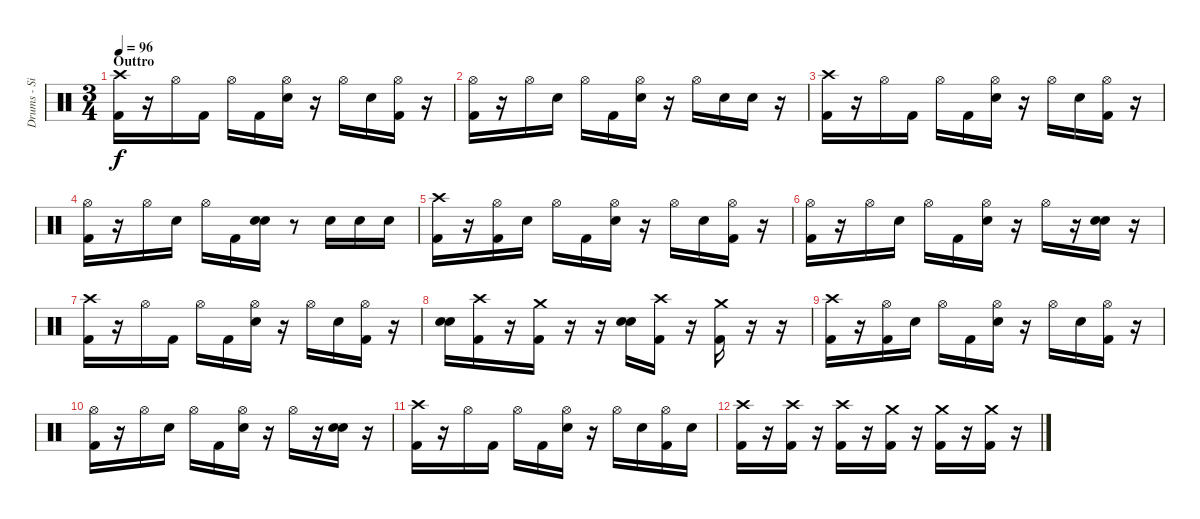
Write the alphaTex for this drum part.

\track ("Drums - Si" "Drums - Si") {instrument percussion}
\staff {score}
\articulation defaults
\ts (3 4)
\section ("" "Outtro")
\tempo 96
\clef neutral
\ks c
("Crash high (hit)" "Kick (hit) 2").16{dy f} r.16 "Hi-Hat (open)".16 "Kick (hit) 2".16 "Hi-Hat (open)".16 "Kick (hit) 2".16 ("Hi-Hat (open)" "Snare (hit) 2").16 r.16 "Hi-Hat (open)".16 "Snare (hit) 2".16 ("Hi-Hat (open)" "Kick (hit) 2").16 r.16 |
("Hi-Hat (open)" "Kick (hit) 2").16 r.16 "Hi-Hat (open)".16 "Snare (hit) 2".16 "Hi-Hat (open)".16 "Kick (hit) 2".16 ("Hi-Hat (open)" "Snare (hit) 2").16 r.16 "Hi-Hat (open)".16 "Snare (hit) 2".16 "Snare (hit) 2".16 r.16 |
("Crash high (hit)" "Kick (hit) 2").16 r.16 "Hi-Hat (open)".16 "Kick (hit) 2".16 "Hi-Hat (open)".16 "Kick (hit) 2".16 ("Hi-Hat (open)" "Snare (hit) 2").16 r.16 "Hi-Hat (open)".16 "Snare (hit) 2".16 ("Hi-Hat (open)" "Kick (hit) 2").16 r.16 |
("Hi-Hat (open)" "Kick (hit) 2").16 r.16 "Hi-Hat (open)".16 "Snare (hit) 2".16 "Hi-Hat (open)".16 "Kick (hit) 2".16 ("Snare (hit) 2" "Snare (hit) 2").16 r.8 "Snare (hit) 2".16 "Snare (hit) 2".16 "Snare (hit) 2".16 |
("Crash high (hit)" "Kick (hit) 2").16 r.16 ("Hi-Hat (open)" "Kick (hit) 2").16 "Snare (hit) 2".16 "Hi-Hat (open)".16 "Kick (hit) 2".16 ("Hi-Hat (open)" "Snare (hit) 2").16 r.16 "Hi-Hat (open)".16 "Snare (hit) 2".16 ("Hi-Hat (open)" "Kick (hit) 2").16 r.16 |
("Hi-Hat (open)" "Kick (hit) 2").16 r.16 "Hi-Hat (open)".16 "Snare (hit) 2".16 "Hi-Hat (open)".16 "Kick (hit) 2".16 ("Hi-Hat (open)" "Snare (hit) 2").16 r.16 "Hi-Hat (open)".16 r.16 ("Snare (hit) 2" "Snare (hit) 2").16 r.16 |
("Crash high (hit)" "Kick (hit) 2").16 r.16 "Hi-Hat (open)".16 "Kick (hit) 2".16 "Hi-Hat (open)".16 "Kick (hit) 2".16 ("Hi-Hat (open)" "Snare (hit) 2").16 r.16 "Hi-Hat (open)".16 "Snare (hit) 2".16 ("Hi-Hat (open)" "Kick (hit) 2").16 r.16 |
("Snare (hit) 2" "Snare (hit) 2").16 ("Crash high (hit)" "Kick (hit) 2").16 r.16 ("Crash medium (hit)" "Kick (hit) 2").16 r.16 r.16 ("Snare (hit) 2" "Snare (hit) 2").16 ("Crash high (hit)" "Kick (hit) 2").16 r.16 ("Crash medium (hit)" "Kick (hit) 2").16 r.16 r.16 |
("Crash high (hit)" "Kick (hit) 2").16 r.16 ("Hi-Hat (open)" "Kick (hit) 2").16 "Snare (hit) 2".16 "Hi-Hat (open)".16 "Kick (hit) 2".16 ("Hi-Hat (open)" "Snare (hit) 2").16 r.16 "Hi-Hat (open)".16 "Snare (hit) 2".16 ("Hi-Hat (open)" "Kick (hit) 2").16 r.16 |
("Hi-Hat (open)" "Kick (hit) 2").16 r.16 "Hi-Hat (open)".16 "Snare (hit) 2".16 "Hi-Hat (open)".16 "Kick (hit) 2".16 ("Hi-Hat (open)" "Snare (hit) 2").16 r.16 "Hi-Hat (open)".16 r.16 ("Snare (hit) 2" "Snare (hit) 2").16 r.16 |
("Crash high (hit)" "Kick (hit) 2").16 r.16 "Hi-Hat (open)".16 "Kick (hit) 2".16 "Hi-Hat (open)".16 "Kick (hit) 2".16 ("Hi-Hat (open)" "Snare (hit) 2").16 r.16 "Hi-Hat (open)".16 "Snare (hit) 2".16 ("Hi-Hat (open)" "Kick (hit) 2").16 "Snare (hit) 2".16 |
("Crash high (hit)" "Kick (hit) 2").16 r.16 ("Crash high (hit)" "Kick (hit) 2").16 r.16 ("Crash high (hit)" "Kick (hit) 2").16 r.16 ("Crash medium (hit)" "Kick (hit) 2").16 r.16 ("Crash medium (hit)" "Kick (hit) 2").16 r.16 ("Crash medium (hit)" "Kick (hit) 2").16 r.16
